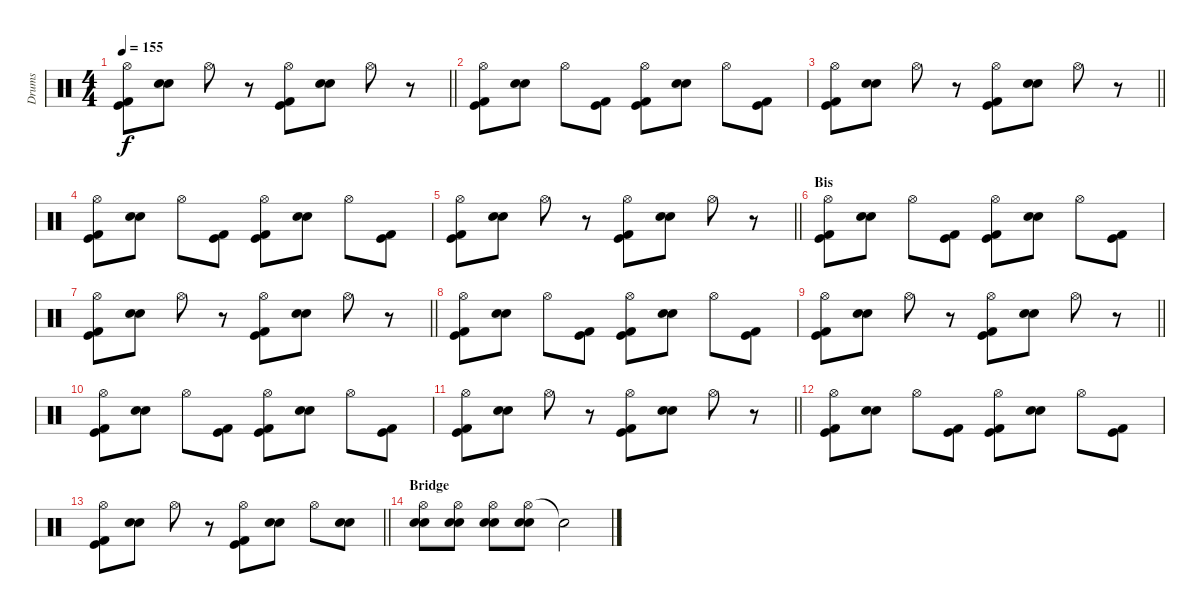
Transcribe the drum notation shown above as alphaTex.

\track ("Drums" "Drums") {instrument percussion}
\staff {score}
\articulation defaults
\ts (4 4)
\tempo 155
\clef neutral
\barLineRight lightlight
\ks c
("Hi-Hat (open)" "Kick (hit)" "Kick (hit) 2").8{dy f} ("Electric Snare (hit)" "Electric Snare (hit)").8 "Hi-Hat (open)".8 r.8 ("Hi-Hat (open)" "Kick (hit)" "Kick (hit) 2").8 ("Electric Snare (hit)" "Electric Snare (hit)").8 "Hi-Hat (open)".8 r.8 |
("Hi-Hat (open)" "Kick (hit)" "Kick (hit) 2").8 ("Electric Snare (hit)" "Electric Snare (hit)").8 "Hi-Hat (open)".8 ("Kick (hit)" "Kick (hit) 2").8 ("Hi-Hat (open)" "Kick (hit)" "Kick (hit) 2").8 ("Electric Snare (hit)" "Electric Snare (hit)").8 "Hi-Hat (open)".8 ("Kick (hit)" "Kick (hit) 2").8 |
\barLineRight lightlight
("Hi-Hat (open)" "Kick (hit)" "Kick (hit) 2").8 ("Electric Snare (hit)" "Electric Snare (hit)").8 "Hi-Hat (open)".8 r.8 ("Hi-Hat (open)" "Kick (hit)" "Kick (hit) 2").8 ("Electric Snare (hit)" "Electric Snare (hit)").8 "Hi-Hat (open)".8 r.8 |
("Hi-Hat (open)" "Kick (hit)" "Kick (hit) 2").8 ("Electric Snare (hit)" "Electric Snare (hit)").8 "Hi-Hat (open)".8 ("Kick (hit)" "Kick (hit) 2").8 ("Hi-Hat (open)" "Kick (hit)" "Kick (hit) 2").8 ("Electric Snare (hit)" "Electric Snare (hit)").8 "Hi-Hat (open)".8 ("Kick (hit)" "Kick (hit) 2").8 |
\barLineRight lightlight
("Hi-Hat (open)" "Kick (hit)" "Kick (hit) 2").8 ("Electric Snare (hit)" "Electric Snare (hit)").8 "Hi-Hat (open)".8 r.8 ("Hi-Hat (open)" "Kick (hit)" "Kick (hit) 2").8 ("Electric Snare (hit)" "Electric Snare (hit)").8 "Hi-Hat (open)".8 r.8 |
\section ("" "Bis")
("Hi-Hat (open)" "Kick (hit)" "Kick (hit) 2").8 ("Electric Snare (hit)" "Electric Snare (hit)").8 "Hi-Hat (open)".8 ("Kick (hit)" "Kick (hit) 2").8 ("Hi-Hat (open)" "Kick (hit)" "Kick (hit) 2").8 ("Electric Snare (hit)" "Electric Snare (hit)").8 "Hi-Hat (open)".8 ("Kick (hit)" "Kick (hit) 2").8 |
\barLineRight lightlight
("Hi-Hat (open)" "Kick (hit)" "Kick (hit) 2").8 ("Electric Snare (hit)" "Electric Snare (hit)").8 "Hi-Hat (open)".8 r.8 ("Hi-Hat (open)" "Kick (hit)" "Kick (hit) 2").8 ("Electric Snare (hit)" "Electric Snare (hit)").8 "Hi-Hat (open)".8 r.8 |
("Hi-Hat (open)" "Kick (hit)" "Kick (hit) 2").8 ("Electric Snare (hit)" "Electric Snare (hit)").8 "Hi-Hat (open)".8 ("Kick (hit)" "Kick (hit) 2").8 ("Hi-Hat (open)" "Kick (hit)" "Kick (hit) 2").8 ("Electric Snare (hit)" "Electric Snare (hit)").8 "Hi-Hat (open)".8 ("Kick (hit)" "Kick (hit) 2").8 |
\barLineRight lightlight
("Hi-Hat (open)" "Kick (hit)" "Kick (hit) 2").8 ("Electric Snare (hit)" "Electric Snare (hit)").8 "Hi-Hat (open)".8 r.8 ("Hi-Hat (open)" "Kick (hit)" "Kick (hit) 2").8 ("Electric Snare (hit)" "Electric Snare (hit)").8 "Hi-Hat (open)".8 r.8 |
("Hi-Hat (open)" "Kick (hit)" "Kick (hit) 2").8 ("Electric Snare (hit)" "Electric Snare (hit)").8 "Hi-Hat (open)".8 ("Kick (hit)" "Kick (hit) 2").8 ("Hi-Hat (open)" "Kick (hit)" "Kick (hit) 2").8 ("Electric Snare (hit)" "Electric Snare (hit)").8 "Hi-Hat (open)".8 ("Kick (hit)" "Kick (hit) 2").8 |
\barLineRight lightlight
("Hi-Hat (open)" "Kick (hit)" "Kick (hit) 2").8 ("Electric Snare (hit)" "Electric Snare (hit)").8 "Hi-Hat (open)".8 r.8 ("Hi-Hat (open)" "Kick (hit)" "Kick (hit) 2").8 ("Electric Snare (hit)" "Electric Snare (hit)").8 "Hi-Hat (open)".8 r.8 |
("Hi-Hat (open)" "Kick (hit)" "Kick (hit) 2").8 ("Electric Snare (hit)" "Electric Snare (hit)").8 "Hi-Hat (open)".8 ("Kick (hit)" "Kick (hit) 2").8 ("Hi-Hat (open)" "Kick (hit)" "Kick (hit) 2").8 ("Electric Snare (hit)" "Electric Snare (hit)").8 "Hi-Hat (open)".8 ("Kick (hit)" "Kick (hit) 2").8 |
\barLineRight lightlight
("Hi-Hat (open)" "Kick (hit)" "Kick (hit) 2").8 ("Electric Snare (hit)" "Electric Snare (hit)").8 "Hi-Hat (open)".8 r.8 ("Hi-Hat (open)" "Kick (hit)" "Kick (hit) 2").8 ("Electric Snare (hit)" "Electric Snare (hit)").8 "Hi-Hat (open)".8 ("Electric Snare (hit)" "Electric Snare (hit)").8 |
\section ("" "Bridge")
("Hi-Hat (open)" "Electric Snare (hit)" "Electric Snare (hit)").8 ("Hi-Hat (open)" "Electric Snare (hit)" "Electric Snare (hit)").8 ("Hi-Hat (open)" "Electric Snare (hit)" "Electric Snare (hit)").8 ("Hi-Hat (open)" "Electric Snare (hit)" "Electric Snare (hit)").8 "Snare (hit)"{t}.2
